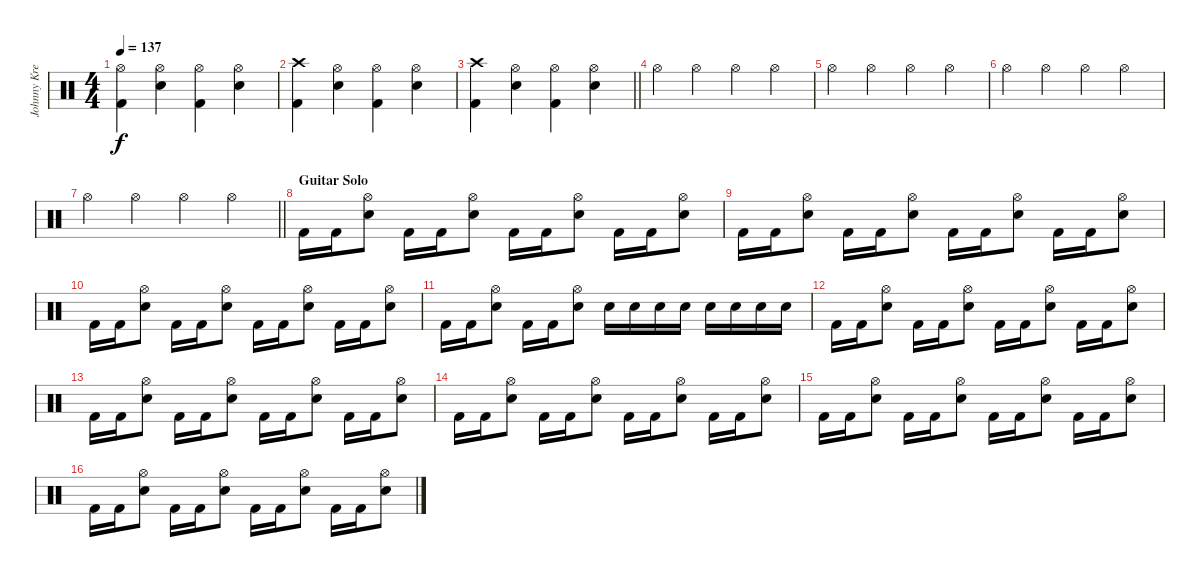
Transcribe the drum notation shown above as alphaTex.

\track ("Johnny Kreis" "Johnny Kre") {instrument percussion}
\staff {score}
\articulation defaults
\ts (4 4)
\tempo 137
\clef neutral
\ks c
("Hi-Hat (open)" "Kick (hit) 2").4{dy f} ("Hi-Hat (open)" "Snare (hit) 2").4 ("Hi-Hat (open)" "Kick (hit) 2").4 ("Hi-Hat (open)" "Snare (hit) 2").4 |
("Crash high (hit)" "Kick (hit) 2").4 ("Hi-Hat (open)" "Snare (hit) 2").4 ("Hi-Hat (open)" "Kick (hit) 2").4 ("Hi-Hat (open)" "Snare (hit) 2").4 |
\barLineRight lightlight
("Crash high (hit)" "Kick (hit) 2").4 ("Hi-Hat (open)" "Snare (hit) 2").4 ("Hi-Hat (open)" "Kick (hit) 2").4 ("Hi-Hat (open)" "Snare (hit) 2").4 |
"Hi-Hat (open)".4 "Hi-Hat (open)".4 "Hi-Hat (open)".4 "Hi-Hat (open)".4 |
"Hi-Hat (open)".4 "Hi-Hat (open)".4 "Hi-Hat (open)".4 "Hi-Hat (open)".4 |
"Hi-Hat (open)".4 "Hi-Hat (open)".4 "Hi-Hat (open)".4 "Hi-Hat (open)".4 |
\barLineRight lightlight "Hi-Hat (open)".4 "Hi-Hat (open)".4 "Hi-Hat (open)".4 "Hi-Hat (open)".4
|
\section ("" "Guitar Solo")
"Kick (hit) 2".16 "Kick (hit) 2".16 ("Hi-Hat (open)" "Snare (hit) 2").8 "Kick (hit) 2".16 "Kick (hit) 2".16 ("Hi-Hat (open)" "Snare (hit) 2").8 "Kick (hit) 2".16 "Kick (hit) 2".16 ("Hi-Hat (open)" "Snare (hit) 2").8 "Kick (hit) 2".16 "Kick (hit) 2".16 ("Hi-Hat (open)" "Snare (hit) 2").8 |
"Kick (hit) 2".16 "Kick (hit) 2".16 ("Hi-Hat (open)" "Snare (hit) 2").8 "Kick (hit) 2".16 "Kick (hit) 2".16 ("Hi-Hat (open)" "Snare (hit) 2").8 "Kick (hit) 2".16 "Kick (hit) 2".16 ("Hi-Hat (open)" "Snare (hit) 2").8 "Kick (hit) 2".16 "Kick (hit) 2".16 ("Hi-Hat (open)" "Snare (hit) 2").8 |
"Kick (hit) 2".16 "Kick (hit) 2".16 ("Hi-Hat (open)" "Snare (hit) 2").8 "Kick (hit) 2".16 "Kick (hit) 2".16 ("Hi-Hat (open)" "Snare (hit) 2").8 "Kick (hit) 2".16 "Kick (hit) 2".16 ("Hi-Hat (open)" "Snare (hit) 2").8 "Kick (hit) 2".16 "Kick (hit) 2".16 ("Hi-Hat (open)" "Snare (hit) 2").8 |
"Kick (hit) 2".16 "Kick (hit) 2".16 ("Hi-Hat (open)" "Snare (hit) 2").8 "Kick (hit) 2".16 "Kick (hit) 2".16 ("Hi-Hat (open)" "Snare (hit) 2").8 "Snare (hit) 2".16 "Snare (hit) 2".16 "Snare (hit) 2".16 "Snare (hit) 2".16 "Snare (hit) 2".16 "Snare (hit) 2".16 "Snare (hit) 2".16 "Snare (hit) 2".16 |
"Kick (hit) 2".16 "Kick (hit) 2".16 ("Hi-Hat (open)" "Snare (hit) 2").8 "Kick (hit) 2".16 "Kick (hit) 2".16 ("Hi-Hat (open)" "Snare (hit) 2").8 "Kick (hit) 2".16 "Kick (hit) 2".16 ("Hi-Hat (open)" "Snare (hit) 2").8 "Kick (hit) 2".16 "Kick (hit) 2".16 ("Hi-Hat (open)" "Snare (hit) 2").8 |
"Kick (hit) 2".16 "Kick (hit) 2".16 ("Hi-Hat (open)" "Snare (hit) 2").8 "Kick (hit) 2".16 "Kick (hit) 2".16 ("Hi-Hat (open)" "Snare (hit) 2").8 "Kick (hit) 2".16 "Kick (hit) 2".16 ("Hi-Hat (open)" "Snare (hit) 2").8 "Kick (hit) 2".16 "Kick (hit) 2".16 ("Hi-Hat (open)" "Snare (hit) 2").8 |
"Kick (hit) 2".16 "Kick (hit) 2".16 ("Hi-Hat (open)" "Snare (hit) 2").8 "Kick (hit) 2".16 "Kick (hit) 2".16 ("Hi-Hat (open)" "Snare (hit) 2").8 "Kick (hit) 2".16 "Kick (hit) 2".16 ("Hi-Hat (open)" "Snare (hit) 2").8 "Kick (hit) 2".16 "Kick (hit) 2".16 ("Hi-Hat (open)" "Snare (hit) 2").8 |
"Kick (hit) 2".16 "Kick (hit) 2".16 ("Hi-Hat (open)" "Snare (hit) 2").8 "Kick (hit) 2".16 "Kick (hit) 2".16 ("Hi-Hat (open)" "Snare (hit) 2").8 "Kick (hit) 2".16 "Kick (hit) 2".16 ("Hi-Hat (open)" "Snare (hit) 2").8 "Kick (hit) 2".16 "Kick (hit) 2".16 ("Hi-Hat (open)" "Snare (hit) 2").8 |
"Kick (hit) 2".16 "Kick (hit) 2".16 ("Hi-Hat (open)" "Snare (hit) 2").8 "Kick (hit) 2".16 "Kick (hit) 2".16 ("Hi-Hat (open)" "Snare (hit) 2").8 "Kick (hit) 2".16 "Kick (hit) 2".16 ("Hi-Hat (open)" "Snare (hit) 2").8 "Kick (hit) 2".16 "Kick (hit) 2".16 ("Hi-Hat (open)" "Snare (hit) 2").8
